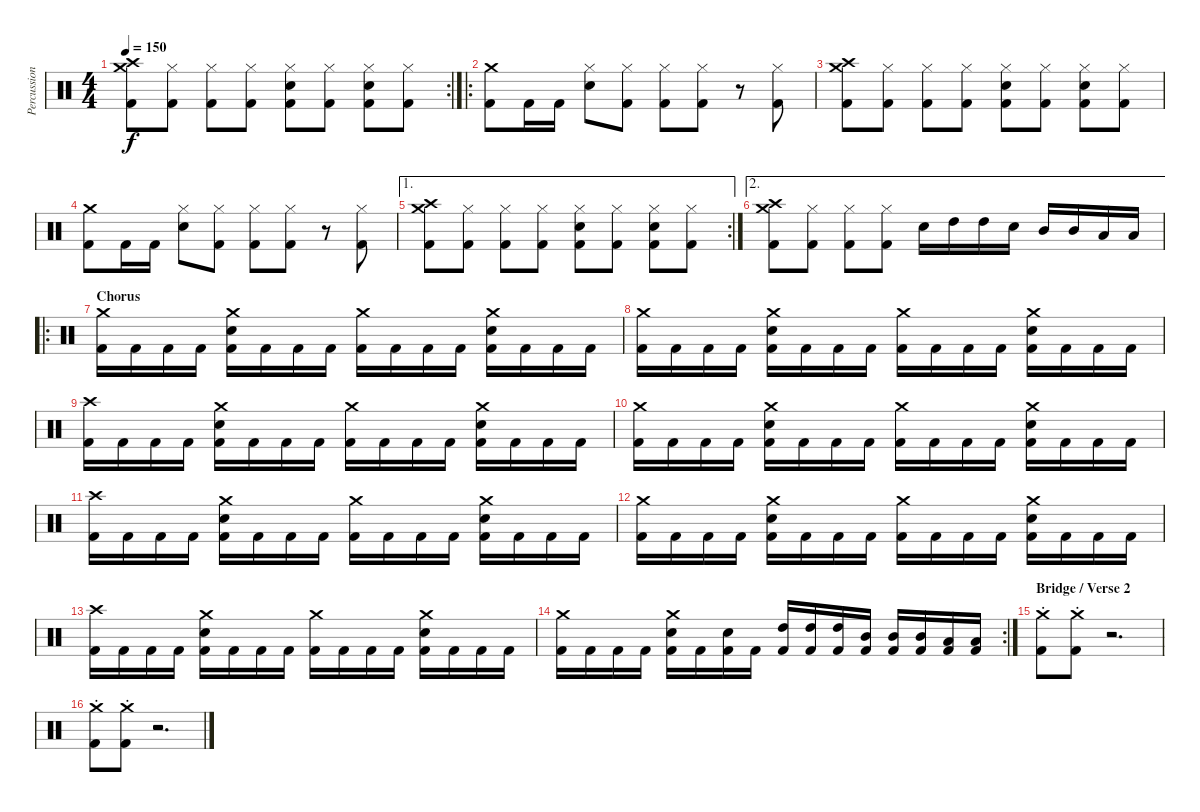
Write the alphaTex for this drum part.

\track ("Percussions" "Percussion") {instrument percussion}
\staff {score}
\articulation defaults
\rc 2
\ts (4 4)
\tempo 150
\clef neutral
\ks c
("Crash high (hit)" "Crash medium (hit)" "Kick (hit) 2").8{dy f} ("Hi-Hat (closed)" "Kick (hit) 2").8 ("Hi-Hat (closed)" "Kick (hit) 2").8 ("Hi-Hat (closed)" "Kick (hit) 2").8 ("Hi-Hat (closed)" "Snare (hit) 2" "Kick (hit) 2").8 ("Hi-Hat (closed)" "Kick (hit) 2").8 ("Hi-Hat (closed)" "Snare (hit) 2" "Kick (hit) 2").8 ("Hi-Hat (closed)" "Kick (hit) 2").8 |
\ro
("Crash medium (hit)" "Kick (hit) 2").8 "Kick (hit) 2".16 "Kick (hit) 2".16 ("Hi-Hat (closed)" "Snare (hit) 2").8 ("Hi-Hat (closed)" "Kick (hit) 2").8 ("Hi-Hat (closed)" "Kick (hit) 2").8 ("Hi-Hat (closed)" "Kick (hit) 2").8 r.8 ("Hi-Hat (closed)" "Kick (hit) 2").8 |
("Crash high (hit)" "Crash medium (hit)" "Kick (hit) 2").8 ("Hi-Hat (closed)" "Kick (hit) 2").8 ("Hi-Hat (closed)" "Kick (hit) 2").8 ("Hi-Hat (closed)" "Kick (hit) 2").8 ("Hi-Hat (closed)" "Snare (hit) 2" "Kick (hit) 2").8 ("Hi-Hat (closed)" "Kick (hit) 2").8 ("Hi-Hat (closed)" "Snare (hit) 2" "Kick (hit) 2").8 ("Hi-Hat (closed)" "Kick (hit) 2").8 |
("Crash medium (hit)" "Kick (hit) 2").8 "Kick (hit) 2".16 "Kick (hit) 2".16 ("Hi-Hat (closed)" "Snare (hit) 2").8 ("Hi-Hat (closed)" "Kick (hit) 2").8 ("Hi-Hat (closed)" "Kick (hit) 2").8 ("Hi-Hat (closed)" "Kick (hit) 2").8 r.8 ("Hi-Hat (closed)" "Kick (hit) 2").8 |
\ae 1
\rc 2
("Crash high (hit)" "Crash medium (hit)" "Kick (hit) 2").8 ("Hi-Hat (closed)" "Kick (hit) 2").8 ("Hi-Hat (closed)" "Kick (hit) 2").8 ("Hi-Hat (closed)" "Kick (hit) 2").8 ("Hi-Hat (closed)" "Snare (hit) 2" "Kick (hit) 2").8 ("Hi-Hat (closed)" "Kick (hit) 2").8 ("Hi-Hat (closed)" "Snare (hit) 2" "Kick (hit) 2").8 ("Hi-Hat (closed)" "Kick (hit) 2").8 |
\ae 2
("Crash high (hit)" "Crash medium (hit)" "Kick (hit) 2").8 ("Hi-Hat (closed)" "Kick (hit) 2").8 ("Hi-Hat (closed)" "Kick (hit) 2").8 ("Hi-Hat (closed)" "Kick (hit) 2").8 "Snare (hit) 2".16 "High Tom (hit)".16 "High Tom (hit)".16 "Snare (hit) 2".16 "Mid Tom (hit)".16 "Mid Tom (hit)".16 "Low Tom (hit)".16 "Low Tom (hit)".16 |
\ro
\section ("" "Chorus")
("Crash medium (hit)" "Kick (hit) 2").16 "Kick (hit) 2".16 "Kick (hit) 2".16 "Kick (hit) 2".16 ("Crash medium (hit)" "Snare (hit) 2" "Kick (hit) 2").16 "Kick (hit) 2".16 "Kick (hit) 2".16 "Kick (hit) 2".16 ("Crash medium (hit)" "Kick (hit) 2").16 "Kick (hit) 2".16 "Kick (hit) 2".16 "Kick (hit) 2".16 ("Crash medium (hit)" "Snare (hit) 2" "Kick (hit) 2").16 "Kick (hit) 2".16 "Kick (hit) 2".16 "Kick (hit) 2".16 |
("Crash medium (hit)" "Kick (hit) 2").16 "Kick (hit) 2".16 "Kick (hit) 2".16 "Kick (hit) 2".16 ("Crash medium (hit)" "Snare (hit) 2" "Kick (hit) 2").16 "Kick (hit) 2".16 "Kick (hit) 2".16 "Kick (hit) 2".16 ("Crash medium (hit)" "Kick (hit) 2").16 "Kick (hit) 2".16 "Kick (hit) 2".16 "Kick (hit) 2".16 ("Crash medium (hit)" "Snare (hit) 2" "Kick (hit) 2").16 "Kick (hit) 2".16 "Kick (hit) 2".16 "Kick (hit) 2".16 |
("Crash high (hit)" "Kick (hit) 2").16 "Kick (hit) 2".16 "Kick (hit) 2".16 "Kick (hit) 2".16 ("Crash medium (hit)" "Snare (hit) 2" "Kick (hit) 2").16 "Kick (hit) 2".16 "Kick (hit) 2".16 "Kick (hit) 2".16 ("Crash medium (hit)" "Kick (hit) 2").16 "Kick (hit) 2".16 "Kick (hit) 2".16 "Kick (hit) 2".16 ("Crash medium (hit)" "Snare (hit) 2" "Kick (hit) 2").16 "Kick (hit) 2".16 "Kick (hit) 2".16 "Kick (hit) 2".16 |
("Crash medium (hit)" "Kick (hit) 2").16 "Kick (hit) 2".16 "Kick (hit) 2".16 "Kick (hit) 2".16 ("Crash medium (hit)" "Snare (hit) 2" "Kick (hit) 2").16 "Kick (hit) 2".16 "Kick (hit) 2".16 "Kick (hit) 2".16 ("Crash medium (hit)" "Kick (hit) 2").16 "Kick (hit) 2".16 "Kick (hit) 2".16 "Kick (hit) 2".16 ("Crash medium (hit)" "Snare (hit) 2" "Kick (hit) 2").16 "Kick (hit) 2".16 "Kick (hit) 2".16 "Kick (hit) 2".16 |
("Crash high (hit)" "Kick (hit) 2").16 "Kick (hit) 2".16 "Kick (hit) 2".16 "Kick (hit) 2".16 ("Crash medium (hit)" "Snare (hit) 2" "Kick (hit) 2").16 "Kick (hit) 2".16 "Kick (hit) 2".16 "Kick (hit) 2".16 ("Crash medium (hit)" "Kick (hit) 2").16 "Kick (hit) 2".16 "Kick (hit) 2".16 "Kick (hit) 2".16 ("Crash medium (hit)" "Snare (hit) 2" "Kick (hit) 2").16 "Kick (hit) 2".16 "Kick (hit) 2".16 "Kick (hit) 2".16 |
("Crash medium (hit)" "Kick (hit) 2").16 "Kick (hit) 2".16 "Kick (hit) 2".16 "Kick (hit) 2".16 ("Crash medium (hit)" "Snare (hit) 2" "Kick (hit) 2").16 "Kick (hit) 2".16 "Kick (hit) 2".16 "Kick (hit) 2".16 ("Crash medium (hit)" "Kick (hit) 2").16 "Kick (hit) 2".16 "Kick (hit) 2".16 "Kick (hit) 2".16 ("Crash medium (hit)" "Snare (hit) 2" "Kick (hit) 2").16 "Kick (hit) 2".16 "Kick (hit) 2".16 "Kick (hit) 2".16 |
("Crash high (hit)" "Kick (hit) 2").16 "Kick (hit) 2".16 "Kick (hit) 2".16 "Kick (hit) 2".16 ("Crash medium (hit)" "Snare (hit) 2" "Kick (hit) 2").16 "Kick (hit) 2".16 "Kick (hit) 2".16 "Kick (hit) 2".16 ("Crash medium (hit)" "Kick (hit) 2").16 "Kick (hit) 2".16 "Kick (hit) 2".16 "Kick (hit) 2".16 ("Crash medium (hit)" "Snare (hit) 2" "Kick (hit) 2").16 "Kick (hit) 2".16 "Kick (hit) 2".16 "Kick (hit) 2".16 |
\rc 2
("Crash medium (hit)" "Kick (hit) 2").16 "Kick (hit) 2".16 "Kick (hit) 2".16 "Kick (hit) 2".16 ("Crash medium (hit)" "Snare (hit) 2" "Kick (hit) 2").16 "Kick (hit) 2".16 ("Snare (hit) 2" "Kick (hit) 2").16 "Kick (hit) 2".16 ("High Tom (hit)" "Kick (hit) 2").16 ("High Tom (hit)" "Kick (hit) 2").16 ("High Tom (hit)" "Kick (hit) 2").16 ("Mid Tom (hit)" "Kick (hit) 2").16 ("Mid Tom (hit)" "Kick (hit) 2").16 ("Mid Tom (hit)" "Kick (hit) 2").16 ("Low Tom (hit)" "Kick (hit) 2").16 ("Low Tom (hit)" "Kick (hit) 2").16 |
\section ("" "Bridge / Verse 2")
("Crash medium (hit)"{st} "Kick (hit) 2").8 ("Crash medium (hit)"{st} "Kick (hit) 2").8 r.2{d} |
("Crash medium (hit)"{st} "Kick (hit) 2").8 ("Crash medium (hit)"{st} "Kick (hit) 2").8 r.2{d}
